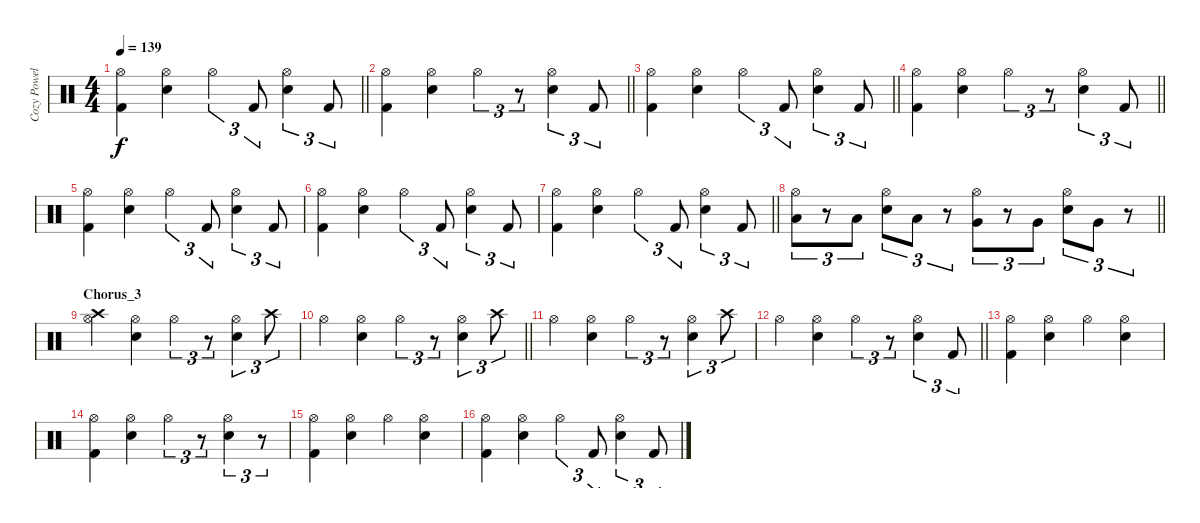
\track ("Cozy Powell" "Cozy Powel") {instrument percussion}
\staff {score}
\articulation defaults
\ts (4 4)
\tempo 139
\clef neutral
\barLineRight lightlight
\ks c
("Hi-Hat (open)" "Kick (hit) 2").4{dy f} ("Hi-Hat (open)" "Snare (hit) 2").4 "Hi-Hat (open)".4{tu (3 2)} "Kick (hit) 2".8{tu (3 2)} ("Hi-Hat (open)" "Snare (hit) 2").4{tu (3 2)} "Kick (hit) 2".8{tu (3 2)} |
\barLineRight lightlight
("Hi-Hat (open)" "Kick (hit) 2").4 ("Hi-Hat (open)" "Snare (hit) 2").4 "Hi-Hat (open)".4{tu (3 2)} r.8{tu (3 2)} ("Hi-Hat (open)" "Snare (hit) 2").4{tu (3 2)} "Kick (hit) 2".8{tu (3 2)} |
\barLineRight lightlight
("Hi-Hat (open)" "Kick (hit) 2").4 ("Hi-Hat (open)" "Snare (hit) 2").4 "Hi-Hat (open)".4{tu (3 2)} "Kick (hit) 2".8{tu (3 2)} ("Hi-Hat (open)" "Snare (hit) 2").4{tu (3 2)} "Kick (hit) 2".8{tu (3 2)} |
\barLineRight lightlight
("Hi-Hat (open)" "Kick (hit) 2").4 ("Hi-Hat (open)" "Snare (hit) 2").4 "Hi-Hat (open)".4{tu (3 2)} r.8{tu (3 2)} ("Hi-Hat (open)" "Snare (hit) 2").4{tu (3 2)} "Kick (hit) 2".8{tu (3 2)} |
("Hi-Hat (open)" "Kick (hit) 2").4 ("Hi-Hat (open)" "Snare (hit) 2").4 "Hi-Hat (open)".4{tu (3 2)} "Kick (hit) 2".8{tu (3 2)} ("Hi-Hat (open)" "Snare (hit) 2").4{tu (3 2)} "Kick (hit) 2".8{tu (3 2)} |
("Hi-Hat (open)" "Kick (hit) 2").4 ("Hi-Hat (open)" "Snare (hit) 2").4 "Hi-Hat (open)".4{tu (3 2)} "Kick (hit) 2".8{tu (3 2)} ("Hi-Hat (open)" "Snare (hit) 2").4{tu (3 2)} "Kick (hit) 2".8{tu (3 2)} |
\barLineRight lightlight
("Hi-Hat (open)" "Kick (hit) 2").4 ("Hi-Hat (open)" "Snare (hit) 2").4 "Hi-Hat (open)".4{tu (3 2)} "Kick (hit) 2".8{tu (3 2)} ("Hi-Hat (open)" "Snare (hit) 2").4{tu (3 2)} "Kick (hit) 2".8{tu (3 2)} |
\barLineRight lightlight
("Hi-Hat (open)" "Low Tom (hit)").8{tu (3 2)} r.8{tu (3 2)} "Low Tom (hit)".8{tu (3 2)} ("Hi-Hat (open)" "Snare (hit) 2").8{tu (3 2)} "Low Tom (hit)".8{tu (3 2)} r.8{tu (3 2)} ("Hi-Hat (open)" "Very Low Tom (hit)").8{tu (3 2)} r.8{tu (3 2)} "Very Low Tom (hit)".8{tu (3 2)} ("Hi-Hat (open)" "Snare (hit) 2").8{tu (3 2)} "Very Low Tom (hit)".8{tu (3 2)} r.8{tu (3 2)} |
\section ("" "Chorus_3")
("Hi-Hat (open)" "Crash high (hit)").4 ("Hi-Hat (open)" "Snare (hit) 2").4 "Hi-Hat (open)".4{tu (3 2)} r.8{tu (3 2)} ("Hi-Hat (open)" "Snare (hit) 2").4{tu (3 2)} "Crash high (hit)".8{tu (3 2)} |
\barLineRight lightlight "Hi-Hat (open)".4
("Hi-Hat (open)" "Snare (hit) 2").4 "Hi-Hat (open)".4{tu (3 2)} r.8{tu (3 2)} ("Hi-Hat (open)" "Snare (hit) 2").4{tu (3 2)} "Crash high (hit)".8{tu (3 2)} |
"Hi-Hat (open)".4 ("Hi-Hat (open)" "Snare (hit) 2").4 "Hi-Hat (open)".4{tu (3 2)} r.8{tu (3 2)} ("Hi-Hat (open)" "Snare (hit) 2").4{tu (3 2)} "Crash high (hit)".8{tu (3 2)} |
\barLineRight lightlight "Hi-Hat (open)".4
("Hi-Hat (open)" "Snare (hit) 2").4 "Hi-Hat (open)".4{tu (3 2)} r.8{tu (3 2)} ("Hi-Hat (open)" "Snare (hit) 2").4{tu (3 2)} "Kick (hit) 2".8{tu (3 2)} |
("Hi-Hat (open)" "Kick (hit) 2").4 ("Hi-Hat (open)" "Snare (hit) 2").4 "Hi-Hat (open)".4 ("Hi-Hat (open)" "Snare (hit) 2").4 |
("Hi-Hat (open)" "Kick (hit) 2").4 ("Hi-Hat (open)" "Snare (hit) 2").4 "Hi-Hat (open)".4{tu (3 2)} r.8{tu (3 2)} ("Hi-Hat (open)" "Snare (hit) 2").4{tu (3 2)} r.8{tu (3 2)} |
("Hi-Hat (open)" "Kick (hit) 2").4 ("Hi-Hat (open)" "Snare (hit) 2").4 "Hi-Hat (open)".4 ("Hi-Hat (open)" "Snare (hit) 2").4 |
("Hi-Hat (open)" "Kick (hit) 2").4 ("Hi-Hat (open)" "Snare (hit) 2").4 "Hi-Hat (open)".4{tu (3 2)} "Kick (hit) 2".8{tu (3 2)} ("Hi-Hat (open)" "Snare (hit) 2").4{tu (3 2)} "Kick (hit) 2".8{tu (3 2)}
